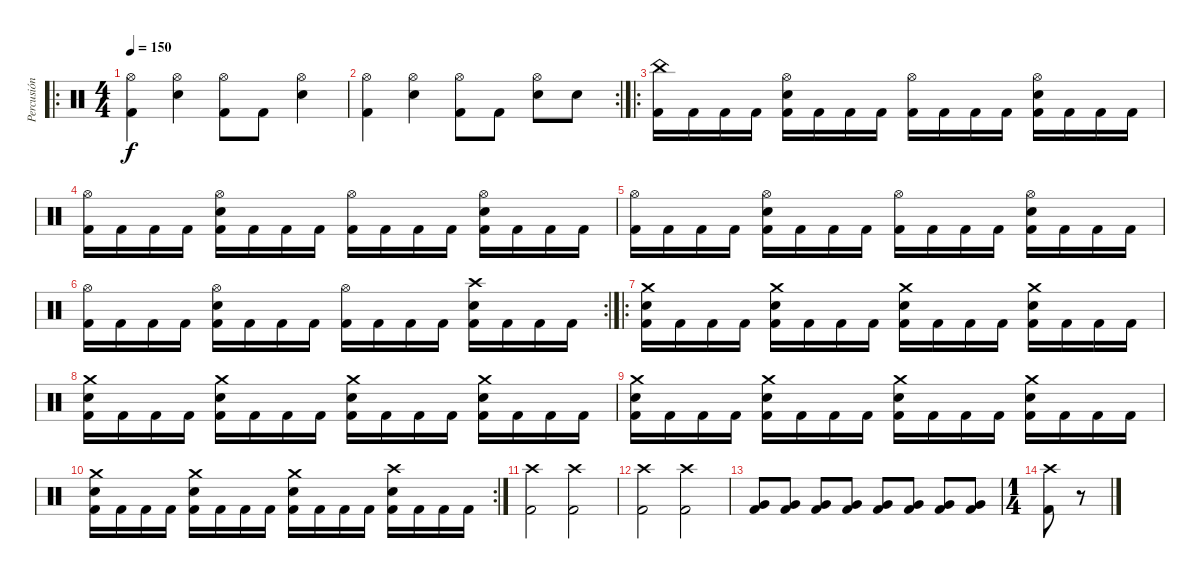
\track ("Percusión" "Percusión") {instrument percussion}
\staff {score}
\articulation defaults
\ro
\ts (4 4)
\tempo 150
\clef neutral
\ks c
("Hi-Hat (open)" "Kick (hit) 2").4{dy f} ("Hi-Hat (open)" "Electric Snare (hit)").4 ("Hi-Hat (open)" "Kick (hit) 2").8 "Kick (hit) 2".8 ("Hi-Hat (open)" "Electric Snare (hit)").4 |
\rc 2
("Hi-Hat (open)" "Kick (hit) 2").4 ("Hi-Hat (open)" "Electric Snare (hit)").4 ("Hi-Hat (open)" "Kick (hit) 2").8 "Kick (hit) 2".8 ("Hi-Hat (open)" "Electric Snare (hit)").8 "Electric Snare (hit)".8 |
\ro
("China (hit)" "Kick (hit) 2").16 "Kick (hit) 2".16 "Kick (hit) 2".16 "Kick (hit) 2".16 ("Hi-Hat (open)" "Electric Snare (hit)" "Kick (hit) 2").16 "Kick (hit) 2".16 "Kick (hit) 2".16 "Kick (hit) 2".16 ("Hi-Hat (open)" "Kick (hit) 2").16 "Kick (hit) 2".16 "Kick (hit) 2".16 "Kick (hit) 2".16 ("Hi-Hat (open)" "Electric Snare (hit)" "Kick (hit) 2").16 "Kick (hit) 2".16 "Kick (hit) 2".16 "Kick (hit) 2".16 |
("Hi-Hat (open)" "Kick (hit) 2").16 "Kick (hit) 2".16 "Kick (hit) 2".16 "Kick (hit) 2".16 ("Hi-Hat (open)" "Electric Snare (hit)" "Kick (hit) 2").16 "Kick (hit) 2".16 "Kick (hit) 2".16 "Kick (hit) 2".16 ("Hi-Hat (open)" "Kick (hit) 2").16 "Kick (hit) 2".16 "Kick (hit) 2".16 "Kick (hit) 2".16 ("Hi-Hat (open)" "Electric Snare (hit)" "Kick (hit) 2").16 "Kick (hit) 2".16 "Kick (hit) 2".16 "Kick (hit) 2".16 |
("Hi-Hat (open)" "Kick (hit) 2").16 "Kick (hit) 2".16 "Kick (hit) 2".16 "Kick (hit) 2".16 ("Hi-Hat (open)" "Electric Snare (hit)" "Kick (hit) 2").16 "Kick (hit) 2".16 "Kick (hit) 2".16 "Kick (hit) 2".16 ("Hi-Hat (open)" "Kick (hit) 2").16 "Kick (hit) 2".16 "Kick (hit) 2".16 "Kick (hit) 2".16 ("Hi-Hat (open)" "Electric Snare (hit)" "Kick (hit) 2").16 "Kick (hit) 2".16 "Kick (hit) 2".16 "Kick (hit) 2".16 |
\rc 2
("Hi-Hat (open)" "Kick (hit) 2").16 "Kick (hit) 2".16 "Kick (hit) 2".16 "Kick (hit) 2".16 ("Hi-Hat (open)" "Electric Snare (hit)" "Kick (hit) 2").16 "Kick (hit) 2".16 "Kick (hit) 2".16 "Kick (hit) 2".16 ("Hi-Hat (open)" "Kick (hit) 2").16 "Kick (hit) 2".16 "Kick (hit) 2".16 "Kick (hit) 2".16 ("Crash high (hit)" "Electric Snare (hit)" "Kick (hit) 2").16 "Kick (hit) 2".16 "Kick (hit) 2".16 "Kick (hit) 2".16 |
\ro
("Crash medium (hit)" "Electric Snare (hit)" "Kick (hit) 2").16 "Kick (hit) 2".16 "Kick (hit) 2".16 "Kick (hit) 2".16 ("Crash medium (hit)" "Electric Snare (hit)" "Kick (hit) 2").16 "Kick (hit) 2".16 "Kick (hit) 2".16 "Kick (hit) 2".16 ("Crash medium (hit)" "Electric Snare (hit)" "Kick (hit) 2").16 "Kick (hit) 2".16 "Kick (hit) 2".16 "Kick (hit) 2".16 ("Crash medium (hit)" "Electric Snare (hit)" "Kick (hit) 2").16 "Kick (hit) 2".16 "Kick (hit) 2".16 "Kick (hit) 2".16 |
("Crash medium (hit)" "Electric Snare (hit)" "Kick (hit) 2").16 "Kick (hit) 2".16 "Kick (hit) 2".16 "Kick (hit) 2".16 ("Crash medium (hit)" "Electric Snare (hit)" "Kick (hit) 2").16 "Kick (hit) 2".16 "Kick (hit) 2".16 "Kick (hit) 2".16 ("Crash medium (hit)" "Electric Snare (hit)" "Kick (hit) 2").16 "Kick (hit) 2".16 "Kick (hit) 2".16 "Kick (hit) 2".16 ("Crash medium (hit)" "Electric Snare (hit)" "Kick (hit) 2").16 "Kick (hit) 2".16 "Kick (hit) 2".16 "Kick (hit) 2".16 |
("Crash medium (hit)" "Electric Snare (hit)" "Kick (hit) 2").16 "Kick (hit) 2".16 "Kick (hit) 2".16 "Kick (hit) 2".16 ("Crash medium (hit)" "Electric Snare (hit)" "Kick (hit) 2").16 "Kick (hit) 2".16 "Kick (hit) 2".16 "Kick (hit) 2".16 ("Crash medium (hit)" "Electric Snare (hit)" "Kick (hit) 2").16 "Kick (hit) 2".16 "Kick (hit) 2".16 "Kick (hit) 2".16 ("Crash medium (hit)" "Electric Snare (hit)" "Kick (hit) 2").16 "Kick (hit) 2".16 "Kick (hit) 2".16 "Kick (hit) 2".16 |
\rc 2
("Crash medium (hit)" "Electric Snare (hit)" "Kick (hit) 2").16 "Kick (hit) 2".16 "Kick (hit) 2".16 "Kick (hit) 2".16 ("Crash medium (hit)" "Electric Snare (hit)" "Kick (hit) 2").16 "Kick (hit) 2".16 "Kick (hit) 2".16 "Kick (hit) 2".16 ("Crash medium (hit)" "Electric Snare (hit)" "Kick (hit) 2").16 "Kick (hit) 2".16 "Kick (hit) 2".16 "Kick (hit) 2".16 ("Crash high (hit)" "Electric Snare (hit)" "Kick (hit) 2").16 "Kick (hit) 2".16 "Kick (hit) 2".16 "Kick (hit) 2".16 |
("Crash high (hit)" "Kick (hit) 2").2 ("Crash high (hit)" "Kick (hit) 2").2 |
("Crash high (hit)" "Kick (hit) 2").2 ("Crash high (hit)" "Kick (hit) 2").2 |
("Very Low Tom (hit)" "Kick (hit) 2").8 ("Very Low Tom (hit)" "Kick (hit) 2").8 ("Very Low Tom (hit)" "Kick (hit) 2").8 ("Very Low Tom (hit)" "Kick (hit) 2").8 ("Very Low Tom (hit)" "Kick (hit) 2").8 ("Very Low Tom (hit)" "Kick (hit) 2").8 ("Very Low Tom (hit)" "Kick (hit) 2").8 ("Very Low Tom (hit)" "Kick (hit) 2").8 |
\ts (1 4)
("Crash high (hit)" "Kick (hit) 2").8 r.8
